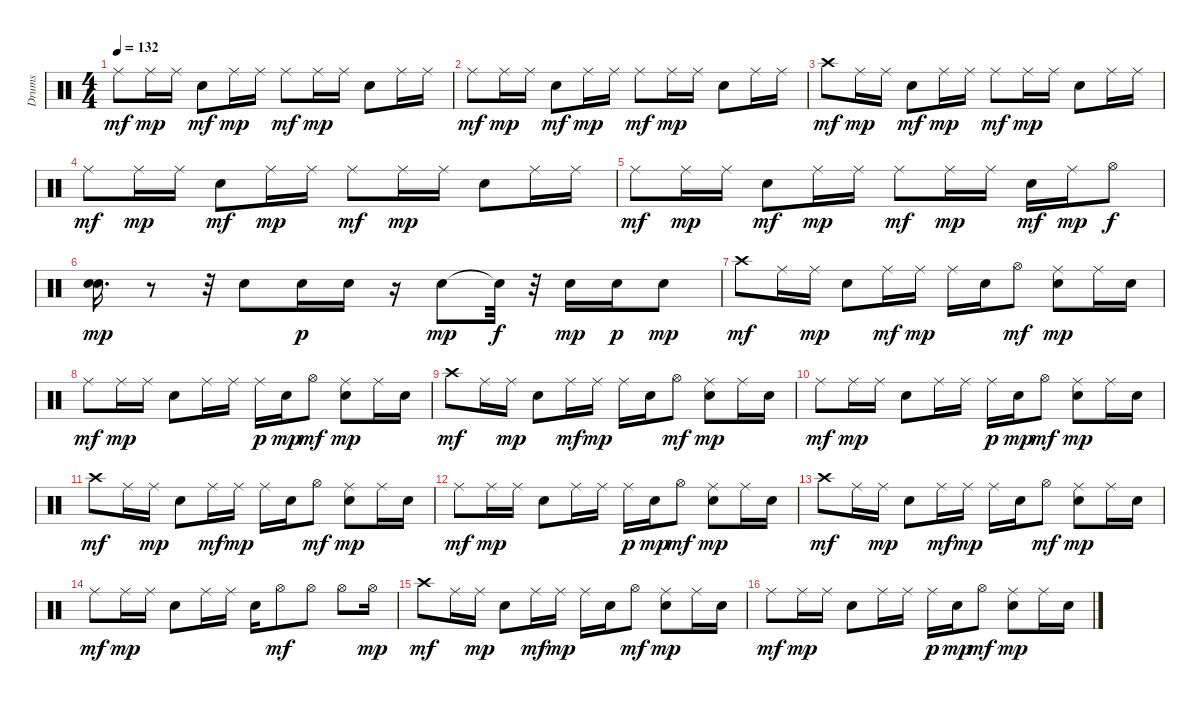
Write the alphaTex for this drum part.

\track ("Drums" "Drums") {instrument percussion}
\staff {score}
\articulation defaults
\ts (4 4)
\tempo 132
\clef neutral
\ks c "Ride (middle)".8{dy mf} "Ride (middle)".16{dy mp} "Ride (middle)".16 "Snare (hit) 2".8{dy mf} "Ride (middle)".16{dy mp} "Ride (middle)".16 "Ride (middle)".8{dy mf} "Ride (middle)".16{dy mp} "Ride (middle)".16 "Snare (hit) 2".8 "Ride (middle)".16 "Ride (middle)".16
|
"Ride (middle)".8{dy mf} "Ride (middle)".16{dy mp} "Ride (middle)".16 "Snare (hit) 2".8{dy mf} "Ride (middle)".16{dy mp} "Ride (middle)".16 "Ride (middle)".8{dy mf} "Ride (middle)".16{dy mp} "Ride (middle)".16 "Snare (hit) 2".8 "Ride (middle)".16 "Ride (middle)".16 |
"Crash high (hit)".8{dy mf} "Ride (middle)".16{dy mp} "Ride (middle)".16 "Snare (hit) 2".8{dy mf} "Ride (middle)".16{dy mp} "Ride (middle)".16 "Ride (middle)".8{dy mf} "Ride (middle)".16{dy mp} "Ride (middle)".16 "Snare (hit) 2".8 "Ride (middle)".16 "Ride (middle)".16 |
"Ride (middle)".8{dy mf} "Ride (middle)".16{dy mp} "Ride (middle)".16 "Snare (hit) 2".8{dy mf} "Ride (middle)".16{dy mp} "Ride (middle)".16 "Ride (middle)".8{dy mf} "Ride (middle)".16{dy mp} "Ride (middle)".16 "Snare (hit) 2".8 "Ride (middle)".16 "Ride (middle)".16 |
"Ride (middle)".8{dy mf} "Ride (middle)".16{dy mp} "Ride (middle)".16 "Snare (hit) 2".8{dy mf} "Ride (middle)".16{dy mp} "Ride (middle)".16 "Ride (middle)".8{dy mf} "Ride (middle)".16{dy mp} "Ride (middle)".16 "Snare (hit) 2".16{dy mf} "Ride (middle)".16{dy mp} "Hi-Hat (open)".8{dy f} |
("Electric Snare (hit)" "Electric Snare (hit)").16{d dy mp} r.8 r.32 "Electric Snare (hit)".8 "Electric Snare (hit)".16{dy p} "Electric Snare (hit)".16 r.16 "Electric Snare (hit)".8{dy mp} "Snare (hit)"{t}.32{dy f} r.32 "Electric Snare (hit)".16{dy mp} "Electric Snare (hit)".16{dy p} "Electric Snare (hit)".8{dy mp} |
"Crash high (hit)".8{dy mf} "Ride (middle)".16 "Ride (middle)".16{dy mp} "Electric Snare (hit)".8 "Ride (middle)".16{dy mf} "Ride (middle)".16{dy mp} "Ride (middle)".16 "Electric Snare (hit)".16 "Hi-Hat (open)".8{dy mf} ("Ride (middle)" "Electric Snare (hit)").8{dy mp} "Ride (middle)".16 "Electric Snare (hit)".16 |
"Ride (middle)".8{dy mf} "Ride (middle)".16{dy mp} "Ride (middle)".16 "Electric Snare (hit)".8 "Ride (middle)".16 "Ride (middle)".16 "Ride (middle)".16{dy p} "Electric Snare (hit)".16{dy mp} "Hi-Hat (open)".8{dy mf} ("Ride (middle)" "Electric Snare (hit)").8{dy mp} "Ride (middle)".16 "Electric Snare (hit)".16 |
"Crash high (hit)".8{dy mf} "Ride (middle)".16 "Ride (middle)".16{dy mp} "Electric Snare (hit)".8 "Ride (middle)".16{dy mf} "Ride (middle)".16{dy mp} "Ride (middle)".16 "Electric Snare (hit)".16 "Hi-Hat (open)".8{dy mf} ("Ride (middle)" "Electric Snare (hit)").8{dy mp} "Ride (middle)".16 "Electric Snare (hit)".16 |
"Ride (middle)".8{dy mf} "Ride (middle)".16{dy mp} "Ride (middle)".16 "Electric Snare (hit)".8 "Ride (middle)".16 "Ride (middle)".16 "Ride (middle)".16{dy p} "Electric Snare (hit)".16{dy mp} "Hi-Hat (open)".8{dy mf} ("Ride (middle)" "Electric Snare (hit)").8{dy mp} "Ride (middle)".16 "Electric Snare (hit)".16 |
"Crash high (hit)".8{dy mf} "Ride (middle)".16 "Ride (middle)".16{dy mp} "Electric Snare (hit)".8 "Ride (middle)".16{dy mf} "Ride (middle)".16{dy mp} "Ride (middle)".16 "Electric Snare (hit)".16 "Hi-Hat (open)".8{dy mf} ("Ride (middle)" "Electric Snare (hit)").8{dy mp} "Ride (middle)".16 "Electric Snare (hit)".16 |
"Ride (middle)".8{dy mf} "Ride (middle)".16{dy mp} "Ride (middle)".16 "Electric Snare (hit)".8 "Ride (middle)".16 "Ride (middle)".16 "Ride (middle)".16{dy p} "Electric Snare (hit)".16{dy mp} "Hi-Hat (open)".8{dy mf} ("Ride (middle)" "Electric Snare (hit)").8{dy mp} "Ride (middle)".16 "Electric Snare (hit)".16 |
"Crash high (hit)".8{dy mf} "Ride (middle)".16 "Ride (middle)".16{dy mp} "Electric Snare (hit)".8 "Ride (middle)".16{dy mf} "Ride (middle)".16{dy mp} "Ride (middle)".16 "Electric Snare (hit)".16 "Hi-Hat (open)".8{dy mf} ("Ride (middle)" "Electric Snare (hit)").8{dy mp} "Ride (middle)".16 "Electric Snare (hit)".16 |
"Ride (middle)".8{dy mf} "Ride (middle)".16{dy mp} "Ride (middle)".16 "Electric Snare (hit)".8 "Ride (middle)".16 "Ride (middle)".16 "Electric Snare (hit)".16 "Hi-Hat (open)".8{dy mf} "Hi-Hat (open)".8 "Hi-Hat (open)".8 "Hi-Hat (open)".16{dy mp} |
"Crash high (hit)".8{dy mf} "Ride (middle)".16 "Ride (middle)".16{dy mp} "Electric Snare (hit)".8 "Ride (middle)".16{dy mf} "Ride (middle)".16{dy mp} "Ride (middle)".16 "Electric Snare (hit)".16 "Hi-Hat (open)".8{dy mf} ("Ride (middle)" "Electric Snare (hit)").8{dy mp} "Ride (middle)".16 "Electric Snare (hit)".16 |
"Ride (middle)".8{dy mf} "Ride (middle)".16{dy mp} "Ride (middle)".16 "Electric Snare (hit)".8 "Ride (middle)".16 "Ride (middle)".16 "Ride (middle)".16{dy p} "Electric Snare (hit)".16{dy mp} "Hi-Hat (open)".8{dy mf} ("Ride (middle)" "Electric Snare (hit)").8{dy mp} "Ride (middle)".16 "Electric Snare (hit)".16
